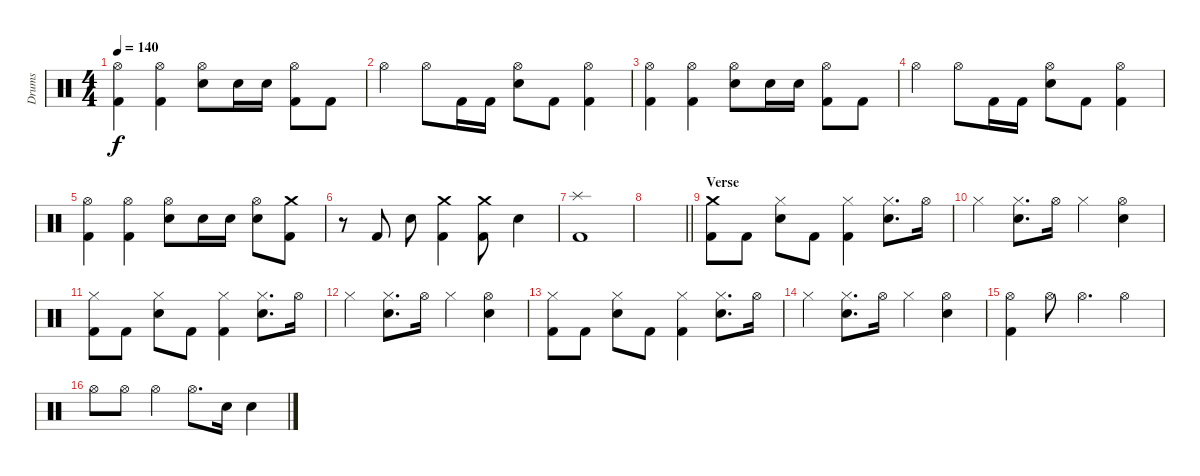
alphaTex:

\track ("Drums" "Drums") {instrument percussion}
\staff {score}
\articulation defaults
\ts (4 4)
\tempo 140
\clef neutral
\ks c
("Hi-Hat (open)" "Kick (hit) 2").4{dy f} ("Hi-Hat (open)" "Kick (hit) 2").4 ("Hi-Hat (open)" "Electric Snare (hit)").8 "Electric Snare (hit)".16 "Electric Snare (hit)".16 ("Hi-Hat (open)" "Kick (hit) 2").8 "Kick (hit) 2".8 |
"Hi-Hat (open)".4 "Hi-Hat (open)".8 "Kick (hit) 2".16 "Kick (hit) 2".16 ("Hi-Hat (open)" "Electric Snare (hit)").8 "Kick (hit) 2".8 ("Hi-Hat (open)" "Kick (hit) 2").4 |
("Hi-Hat (open)" "Kick (hit) 2").4 ("Hi-Hat (open)" "Kick (hit) 2").4 ("Hi-Hat (open)" "Electric Snare (hit)").8 "Electric Snare (hit)".16 "Electric Snare (hit)".16 ("Hi-Hat (open)" "Kick (hit) 2").8 "Kick (hit) 2".8 |
"Hi-Hat (open)".4 "Hi-Hat (open)".8 "Kick (hit) 2".16 "Kick (hit) 2".16 ("Hi-Hat (open)" "Electric Snare (hit)").8 "Kick (hit) 2".8 ("Hi-Hat (open)" "Kick (hit) 2").4 |
("Hi-Hat (open)" "Kick (hit) 2").4 ("Hi-Hat (open)" "Kick (hit) 2").4 ("Hi-Hat (open)" "Electric Snare (hit)").8 "Electric Snare (hit)".16 "Electric Snare (hit)".16 ("Hi-Hat (open)" "Electric Snare (hit)").8 ("Crash medium (hit)" "Kick (hit) 2").8 |
r.8 "Kick (hit) 2".8 "Electric Snare (hit)".8 ("Crash medium (hit)" "Kick (hit) 2").4 ("Crash medium (hit)" "Kick (hit) 2").8 "Electric Snare (hit)".4 |
("Splash (hit)" "Kick (hit) 2").1 |
\barLineRight lightlight
|
\section ("" "Verse")
("Crash medium (hit)" "Kick (hit) 2").8 "Kick (hit) 2".8 ("Hi-Hat (closed)" "Electric Snare (hit)").8 "Kick (hit) 2".8 ("Hi-Hat (closed)" "Kick (hit) 2").4 ("Hi-Hat (closed)" "Electric Snare (hit)").8{d} "Hi-Hat (open)".16 |
"Hi-Hat (closed)".4 ("Hi-Hat (closed)" "Electric Snare (hit)").8{d} "Hi-Hat (open)".16 "Hi-Hat (closed)".4 ("Hi-Hat (open)" "Electric Snare (hit)").4 |
("Hi-Hat (closed)" "Kick (hit) 2").8 "Kick (hit) 2".8 ("Hi-Hat (closed)" "Electric Snare (hit)").8 "Kick (hit) 2".8 ("Hi-Hat (closed)" "Kick (hit) 2").4 ("Hi-Hat (closed)" "Electric Snare (hit)").8{d} "Hi-Hat (open)".16 |
"Hi-Hat (closed)".4 ("Hi-Hat (closed)" "Electric Snare (hit)").8{d} "Hi-Hat (open)".16 "Hi-Hat (closed)".4 ("Hi-Hat (open)" "Electric Snare (hit)").4 |
("Hi-Hat (closed)" "Kick (hit) 2").8 "Kick (hit) 2".8 ("Hi-Hat (closed)" "Electric Snare (hit)").8 "Kick (hit) 2".8 ("Hi-Hat (closed)" "Kick (hit) 2").4 ("Hi-Hat (closed)" "Electric Snare (hit)").8{d} "Hi-Hat (open)".16 |
"Hi-Hat (closed)".4 ("Hi-Hat (closed)" "Electric Snare (hit)").8{d} "Hi-Hat (open)".16 "Hi-Hat (closed)".4 ("Hi-Hat (open)" "Electric Snare (hit)").4 |
("Hi-Hat (open)" "Kick (hit) 2").4 "Hi-Hat (open)".8 "Hi-Hat (open)".4{d} "Hi-Hat (open)".4 |
"Hi-Hat (open)".8 "Hi-Hat (open)".8 "Hi-Hat (open)".4 "Hi-Hat (open)".8{d} "Electric Snare (hit)".16 "Electric Snare (hit)".4
